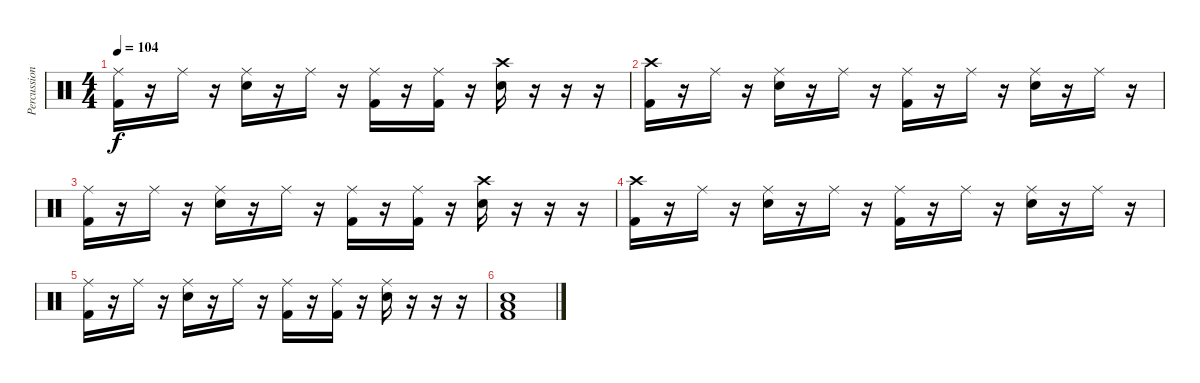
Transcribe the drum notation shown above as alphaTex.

\track ("Percussion" "Percussion") {instrument percussion}
\staff {score}
\articulation defaults
\ts (4 4)
\tempo 104
\clef neutral
\ks c
("Ride (middle)" "Kick (hit) 2").16{dy f} r.16 "Ride (middle)".16 r.16 ("Ride (middle)" "Snare (hit) 2").16 r.16 "Ride (middle)".16 r.16 ("Ride (middle)" "Kick (hit) 2").16 r.16 ("Ride (middle)" "Kick (hit) 2").16 r.16 ("Crash high (hit)" "Snare (hit) 2").16 r.16 r.16 r.16 |
("Crash high (hit)" "Kick (hit) 2").16 r.16 "Ride (middle)".16 r.16 ("Ride (middle)" "Snare (hit) 2").16 r.16 "Ride (middle)".16 r.16 ("Ride (middle)" "Kick (hit) 2").16 r.16 "Ride (middle)".16 r.16 ("Ride (middle)" "Snare (hit) 2").16 r.16 "Ride (middle)".16 r.16 |
("Ride (middle)" "Kick (hit) 2").16 r.16 "Ride (middle)".16 r.16 ("Ride (middle)" "Snare (hit) 2").16 r.16 "Ride (middle)".16 r.16 ("Ride (middle)" "Kick (hit) 2").16 r.16 ("Ride (middle)" "Kick (hit) 2").16 r.16 ("Crash high (hit)" "Snare (hit) 2").16 r.16 r.16 r.16 |
("Crash high (hit)" "Kick (hit) 2").16 r.16 "Ride (middle)".16 r.16 ("Ride (middle)" "Snare (hit) 2").16 r.16 "Ride (middle)".16 r.16 ("Ride (middle)" "Kick (hit) 2").16 r.16 "Ride (middle)".16 r.16 ("Ride (middle)" "Snare (hit) 2").16 r.16 "Ride (middle)".16 r.16 |
("Ride (middle)" "Kick (hit) 2").16 r.16 "Ride (middle)".16 r.16 ("Ride (middle)" "Snare (hit) 2").16 r.16 "Ride (middle)".16 r.16 ("Ride (middle)" "Kick (hit) 2").16 r.16 ("Ride (middle)" "Kick (hit) 2").16 r.16 ("Ride (middle)" "Snare (hit) 2").16 r.16 r.16 r.16 |
("Snare (hit) 2" "Low Floor Tom (hit)" "Kick (hit) 2").1
